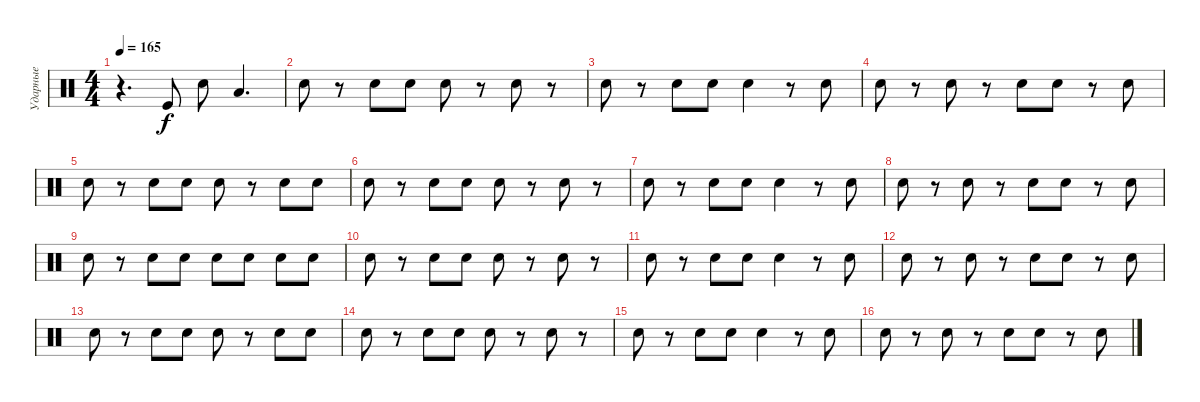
\track ("Ударные" "Ударные") {instrument percussion}
\staff {score}
\articulation defaults
\ts (4 4)
\tempo 165
\clef neutral
\ks c
r.4{d dy f} "Kick (hit)".8 "Electric Snare (hit)".8 "Low Tom (hit)".4{d} |
"Electric Snare (hit)".8 r.8 "Electric Snare (hit)".8 "Electric Snare (hit)".8 "Electric Snare (hit)".8 r.8 "Electric Snare (hit)".8 r.8 |
"Electric Snare (hit)".8 r.8 "Electric Snare (hit)".8 "Electric Snare (hit)".8 "Electric Snare (hit)".4 r.8 "Electric Snare (hit)".8 |
"Electric Snare (hit)".8 r.8 "Electric Snare (hit)".8 r.8 "Electric Snare (hit)".8 "Electric Snare (hit)".8 r.8 "Electric Snare (hit)".8 |
"Electric Snare (hit)".8 r.8 "Electric Snare (hit)".8 "Electric Snare (hit)".8 "Electric Snare (hit)".8 r.8 "Electric Snare (hit)".8 "Electric Snare (hit)".8 |
"Electric Snare (hit)".8 r.8 "Electric Snare (hit)".8 "Electric Snare (hit)".8 "Electric Snare (hit)".8 r.8 "Electric Snare (hit)".8 r.8 |
"Electric Snare (hit)".8 r.8 "Electric Snare (hit)".8 "Electric Snare (hit)".8 "Electric Snare (hit)".4 r.8 "Electric Snare (hit)".8 |
"Electric Snare (hit)".8 r.8 "Electric Snare (hit)".8 r.8 "Electric Snare (hit)".8 "Electric Snare (hit)".8 r.8 "Electric Snare (hit)".8 |
"Electric Snare (hit)".8 r.8 "Electric Snare (hit)".8 "Electric Snare (hit)".8 "Electric Snare (hit)".8 "Electric Snare (hit)".8 "Electric Snare (hit)".8 "Electric Snare (hit)".8 |
"Electric Snare (hit)".8 r.8 "Electric Snare (hit)".8 "Electric Snare (hit)".8 "Electric Snare (hit)".8 r.8 "Electric Snare (hit)".8 r.8 |
"Electric Snare (hit)".8 r.8 "Electric Snare (hit)".8 "Electric Snare (hit)".8 "Electric Snare (hit)".4 r.8 "Electric Snare (hit)".8 |
"Electric Snare (hit)".8 r.8 "Electric Snare (hit)".8 r.8 "Electric Snare (hit)".8 "Electric Snare (hit)".8 r.8 "Electric Snare (hit)".8 |
"Electric Snare (hit)".8 r.8 "Electric Snare (hit)".8 "Electric Snare (hit)".8 "Electric Snare (hit)".8 r.8 "Electric Snare (hit)".8 "Electric Snare (hit)".8 |
"Electric Snare (hit)".8 r.8 "Electric Snare (hit)".8 "Electric Snare (hit)".8 "Electric Snare (hit)".8 r.8 "Electric Snare (hit)".8 r.8 |
"Electric Snare (hit)".8 r.8 "Electric Snare (hit)".8 "Electric Snare (hit)".8 "Electric Snare (hit)".4 r.8 "Electric Snare (hit)".8 |
"Electric Snare (hit)".8 r.8 "Electric Snare (hit)".8 r.8 "Electric Snare (hit)".8 "Electric Snare (hit)".8 r.8 "Electric Snare (hit)".8
